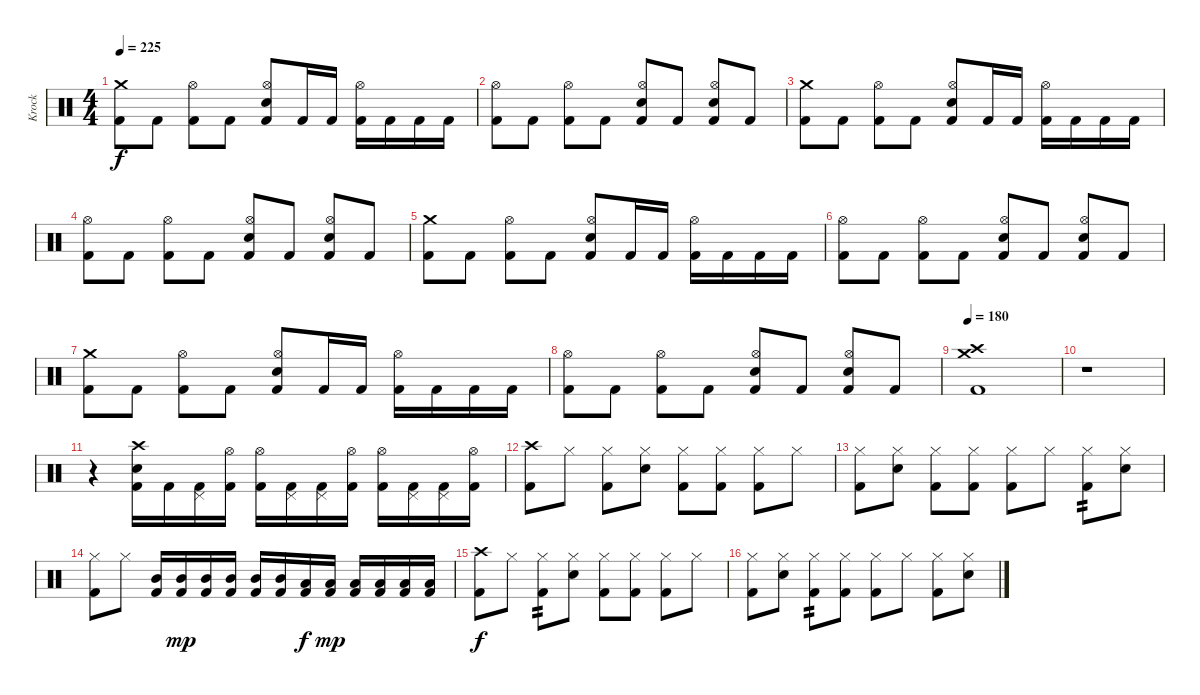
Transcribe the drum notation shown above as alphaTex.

\track ("Krock" "Krock") {instrument percussion}
\staff {score}
\articulation defaults
\ts (4 4)
\tempo 225
\clef neutral
\ks c
("Kick (hit) 2" "Crash medium (hit)").8{dy f} "Kick (hit) 2".8 ("Kick (hit) 2" "Hi-Hat (open)").8 "Kick (hit) 2".8 ("Kick (hit) 2" "Electric Snare (hit)" "Hi-Hat (open)").8 "Kick (hit) 2".16 "Kick (hit) 2".16 ("Kick (hit) 2" "Hi-Hat (open)").16 "Kick (hit) 2".16 "Kick (hit) 2".16 "Kick (hit) 2".16 |
("Kick (hit) 2" "Hi-Hat (open)").8 "Kick (hit) 2".8 ("Kick (hit) 2" "Hi-Hat (open)").8 "Kick (hit) 2".8 ("Kick (hit) 2" "Electric Snare (hit)" "Hi-Hat (open)").8 "Kick (hit) 2".8 ("Kick (hit) 2" "Electric Snare (hit)" "Hi-Hat (open)").8 "Kick (hit) 2".8 |
("Kick (hit) 2" "Crash medium (hit)").8 "Kick (hit) 2".8 ("Kick (hit) 2" "Hi-Hat (open)").8 "Kick (hit) 2".8 ("Kick (hit) 2" "Electric Snare (hit)" "Hi-Hat (open)").8 "Kick (hit) 2".16 "Kick (hit) 2".16 ("Kick (hit) 2" "Hi-Hat (open)").16 "Kick (hit) 2".16 "Kick (hit) 2".16 "Kick (hit) 2".16 |
("Kick (hit) 2" "Hi-Hat (open)").8 "Kick (hit) 2".8 ("Kick (hit) 2" "Hi-Hat (open)").8 "Kick (hit) 2".8 ("Kick (hit) 2" "Electric Snare (hit)" "Hi-Hat (open)").8 "Kick (hit) 2".8 ("Kick (hit) 2" "Electric Snare (hit)" "Hi-Hat (open)").8 "Kick (hit) 2".8 |
("Kick (hit) 2" "Crash medium (hit)").8 "Kick (hit) 2".8 ("Kick (hit) 2" "Hi-Hat (open)").8 "Kick (hit) 2".8 ("Kick (hit) 2" "Electric Snare (hit)" "Hi-Hat (open)").8 "Kick (hit) 2".16 "Kick (hit) 2".16 ("Kick (hit) 2" "Hi-Hat (open)").16 "Kick (hit) 2".16 "Kick (hit) 2".16 "Kick (hit) 2".16 |
("Kick (hit) 2" "Hi-Hat (open)").8 "Kick (hit) 2".8 ("Kick (hit) 2" "Hi-Hat (open)").8 "Kick (hit) 2".8 ("Kick (hit) 2" "Electric Snare (hit)" "Hi-Hat (open)").8 "Kick (hit) 2".8 ("Kick (hit) 2" "Electric Snare (hit)" "Hi-Hat (open)").8 "Kick (hit) 2".8 |
("Kick (hit) 2" "Crash medium (hit)").8 "Kick (hit) 2".8 ("Kick (hit) 2" "Hi-Hat (open)").8 "Kick (hit) 2".8 ("Kick (hit) 2" "Electric Snare (hit)" "Hi-Hat (open)").8 "Kick (hit) 2".16 "Kick (hit) 2".16 ("Kick (hit) 2" "Hi-Hat (open)").16 "Kick (hit) 2".16 "Kick (hit) 2".16 "Kick (hit) 2".16 |
("Kick (hit) 2" "Hi-Hat (open)").8 "Kick (hit) 2".8 ("Kick (hit) 2" "Hi-Hat (open)").8 "Kick (hit) 2".8 ("Kick (hit) 2" "Electric Snare (hit)" "Hi-Hat (open)").8 "Kick (hit) 2".8 ("Kick (hit) 2" "Electric Snare (hit)" "Hi-Hat (open)").8 "Kick (hit) 2".8 |
\tempo 180
("Crash high (hit)" "Crash medium (hit)" "Kick (hit) 2").1 |
r.1 |
r.4 ("Kick (hit) 2" "Electric Snare (hit)" "Crash high (hit)").16 "Kick (hit) 2".16 ("Kick (hit) 2" "Pedal Hi-Hat (hit)").16 ("Kick (hit) 2" "Hi-Hat (open)").16 ("Kick (hit) 2" "Hi-Hat (open)").16 ("Kick (hit) 2" "Pedal Hi-Hat (hit)").16 ("Kick (hit) 2" "Pedal Hi-Hat (hit)").16 ("Kick (hit) 2" "Hi-Hat (open)").16 ("Kick (hit) 2" "Hi-Hat (open)").16 ("Kick (hit) 2" "Pedal Hi-Hat (hit)").16 ("Kick (hit) 2" "Pedal Hi-Hat (hit)").16 ("Kick (hit) 2" "Hi-Hat (open)").16 |
("Kick (hit) 2" "Crash high (hit)").8 "Hi-Hat (closed)".8 ("Kick (hit) 2" "Hi-Hat (closed)").8 ("Electric Snare (hit)" "Hi-Hat (closed)").8 ("Kick (hit) 2" "Hi-Hat (closed)").8 ("Kick (hit) 2" "Hi-Hat (closed)").8 ("Kick (hit) 2" "Hi-Hat (closed)").8 "Hi-Hat (closed)".8 |
("Kick (hit) 2" "Hi-Hat (closed)").8 ("Electric Snare (hit)" "Hi-Hat (closed)").8 ("Kick (hit) 2" "Hi-Hat (closed)").8 ("Kick (hit) 2" "Hi-Hat (closed)").8 ("Kick (hit) 2" "Hi-Hat (closed)").8 "Hi-Hat (closed)".8 ("Kick (hit) 2" "Hi-Hat (closed)").8{tp 2} ("Electric Snare (hit)" "Hi-Hat (closed)").8 |
("Kick (hit) 2" "Hi-Hat (closed)").8 "Hi-Hat (closed)".8 ("Mid Tom (hit)" "Kick (hit) 2").16 ("Mid Tom (hit)" "Kick (hit) 2").16{dy mp} ("Mid Tom (hit)" "Kick (hit) 2").16 ("Mid Tom (hit)" "Kick (hit) 2").16 ("Mid Tom (hit)" "Kick (hit) 2").16 ("Mid Tom (hit)" "Kick (hit) 2").16 ("Low Tom (hit)" "Kick (hit) 2").16{dy f} ("Low Tom (hit)" "Kick (hit) 2").16{dy mp} ("Low Tom (hit)" "Kick (hit) 2").16 ("Low Tom (hit)" "Kick (hit) 2").16 ("Low Tom (hit)" "Kick (hit) 2").16 ("Low Tom (hit)" "Kick (hit) 2").16 |
("Kick (hit) 2" "Crash high (hit)").8{dy f} "Hi-Hat (closed)".8 ("Kick (hit) 2" "Hi-Hat (closed)").8{tp 2} ("Electric Snare (hit)" "Hi-Hat (closed)").8 ("Kick (hit) 2" "Hi-Hat (closed)").8 ("Kick (hit) 2" "Hi-Hat (closed)").8 ("Kick (hit) 2" "Hi-Hat (closed)").8 "Hi-Hat (closed)".8 |
("Kick (hit) 2" "Hi-Hat (closed)").8 ("Electric Snare (hit)" "Hi-Hat (closed)").8 ("Kick (hit) 2" "Hi-Hat (closed)").8{tp 2} ("Kick (hit) 2" "Hi-Hat (closed)").8 ("Kick (hit) 2" "Hi-Hat (closed)").8 "Hi-Hat (closed)".8 ("Kick (hit) 2" "Hi-Hat (closed)").8 ("Electric Snare (hit)" "Hi-Hat (closed)").8
